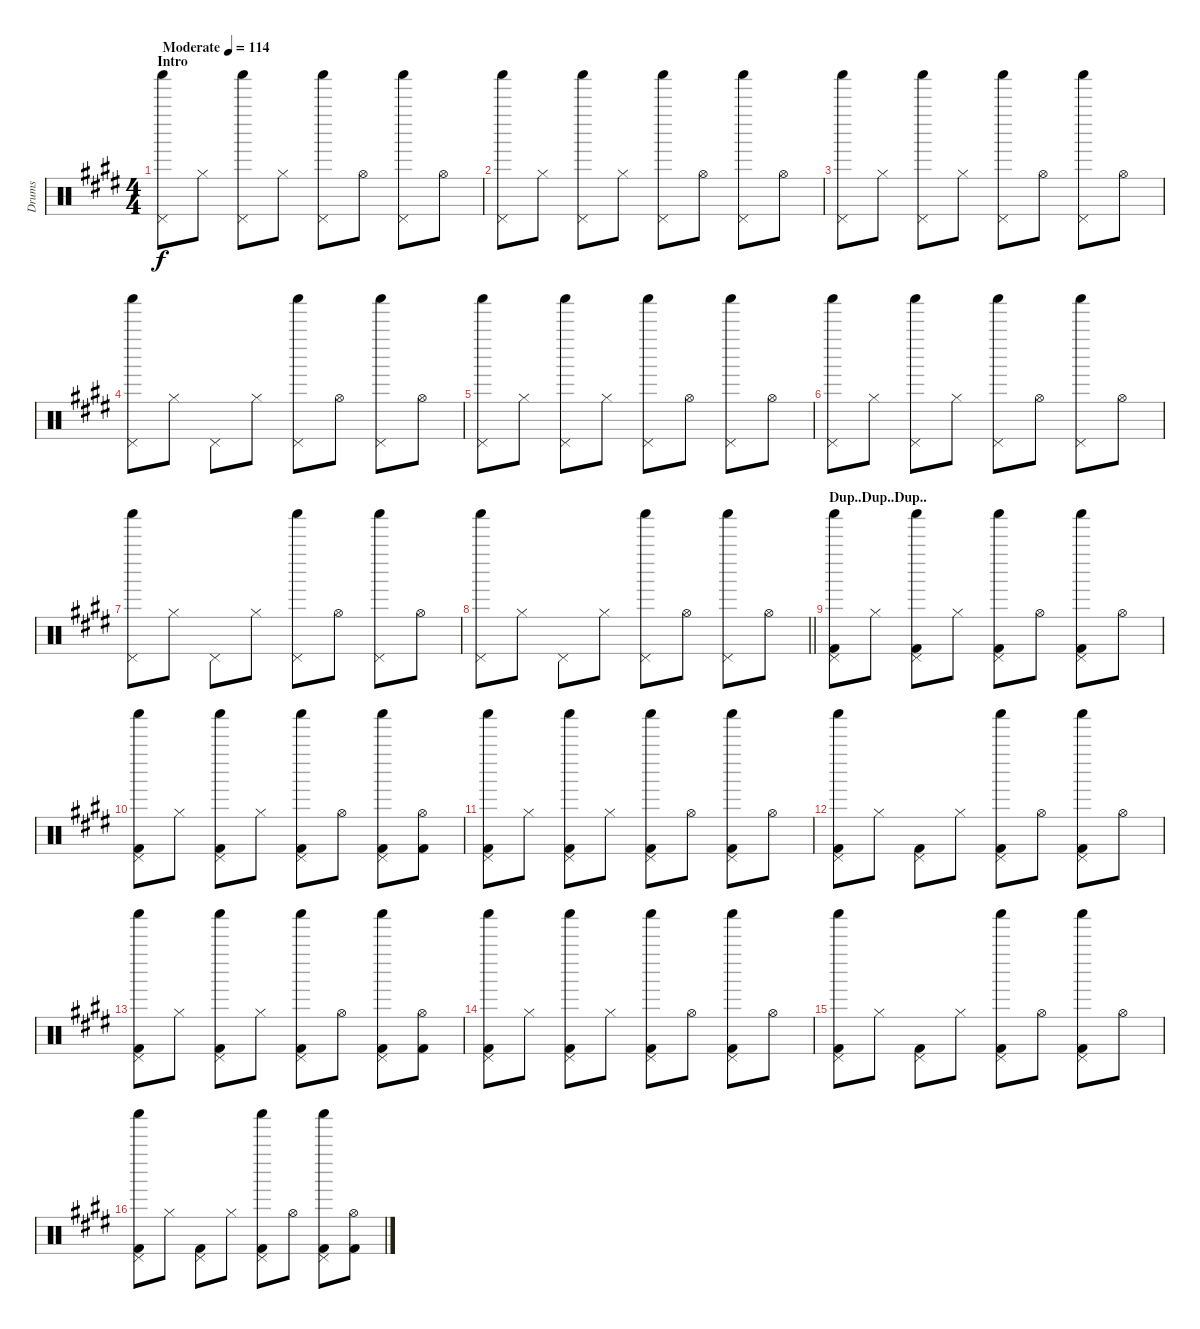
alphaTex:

\track ("Drums" "Drums") {instrument percussion}
\staff {score}
\articulation defaults
\ts (4 4)
\section ("" "Intro")
\tempo (114 "Moderate")
\clef neutral
\ks e
("Pedal Hi-Hat (hit)" "Shaker (hit)").8{dy f} "Hi-Hat (closed)".8 ("Pedal Hi-Hat (hit)" "Shaker (hit)").8 "Hi-Hat (closed)".8 ("Pedal Hi-Hat (hit)" "Shaker (hit)").8 "Hi-Hat (open)".8 ("Pedal Hi-Hat (hit)" "Shaker (hit)").8 "Hi-Hat (open)".8 |
("Pedal Hi-Hat (hit)" "Shaker (hit)").8 "Hi-Hat (closed)".8 ("Pedal Hi-Hat (hit)" "Shaker (hit)").8 "Hi-Hat (closed)".8 ("Pedal Hi-Hat (hit)" "Shaker (hit)").8 "Hi-Hat (open)".8 ("Pedal Hi-Hat (hit)" "Shaker (hit)").8 "Hi-Hat (open)".8 |
("Pedal Hi-Hat (hit)" "Shaker (hit)").8 "Hi-Hat (closed)".8 ("Pedal Hi-Hat (hit)" "Shaker (hit)").8 "Hi-Hat (closed)".8 ("Pedal Hi-Hat (hit)" "Shaker (hit)").8 "Hi-Hat (open)".8 ("Pedal Hi-Hat (hit)" "Shaker (hit)").8 "Hi-Hat (open)".8 |
("Pedal Hi-Hat (hit)" "Shaker (hit)").8 "Hi-Hat (closed)".8 "Pedal Hi-Hat (hit)".8 "Hi-Hat (closed)".8 ("Pedal Hi-Hat (hit)" "Shaker (hit)").8 "Hi-Hat (open)".8 ("Pedal Hi-Hat (hit)" "Shaker (hit)").8 "Hi-Hat (open)".8 |
("Pedal Hi-Hat (hit)" "Shaker (hit)").8 "Hi-Hat (closed)".8 ("Pedal Hi-Hat (hit)" "Shaker (hit)").8 "Hi-Hat (closed)".8 ("Pedal Hi-Hat (hit)" "Shaker (hit)").8 "Hi-Hat (open)".8 ("Pedal Hi-Hat (hit)" "Shaker (hit)").8 "Hi-Hat (open)".8 |
("Pedal Hi-Hat (hit)" "Shaker (hit)").8 "Hi-Hat (closed)".8 ("Pedal Hi-Hat (hit)" "Shaker (hit)").8 "Hi-Hat (closed)".8 ("Pedal Hi-Hat (hit)" "Shaker (hit)").8 "Hi-Hat (open)".8 ("Pedal Hi-Hat (hit)" "Shaker (hit)").8 "Hi-Hat (open)".8 |
("Pedal Hi-Hat (hit)" "Shaker (hit)").8 "Hi-Hat (closed)".8 "Pedal Hi-Hat (hit)".8 "Hi-Hat (closed)".8 ("Pedal Hi-Hat (hit)" "Shaker (hit)").8 "Hi-Hat (open)".8 ("Pedal Hi-Hat (hit)" "Shaker (hit)").8 "Hi-Hat (open)".8 |
\barLineRight lightlight
("Pedal Hi-Hat (hit)" "Shaker (hit)").8 "Hi-Hat (closed)".8 "Pedal Hi-Hat (hit)".8 "Hi-Hat (closed)".8 ("Pedal Hi-Hat (hit)" "Shaker (hit)").8 "Hi-Hat (open)".8 ("Pedal Hi-Hat (hit)" "Shaker (hit)").8 "Hi-Hat (open)".8 |
\section ("" "Dup..Dup..Dup..")
("Pedal Hi-Hat (hit)" "Shaker (hit)" "Kick (hit) 2").8 "Hi-Hat (closed)".8 ("Pedal Hi-Hat (hit)" "Shaker (hit)" "Kick (hit) 2").8 "Hi-Hat (closed)".8 ("Pedal Hi-Hat (hit)" "Shaker (hit)" "Kick (hit) 2").8 "Hi-Hat (open)".8 ("Pedal Hi-Hat (hit)" "Shaker (hit)" "Kick (hit) 2").8 "Hi-Hat (open)".8 |
("Pedal Hi-Hat (hit)" "Shaker (hit)" "Kick (hit) 2").8 "Hi-Hat (closed)".8 ("Pedal Hi-Hat (hit)" "Shaker (hit)" "Kick (hit) 2").8 "Hi-Hat (closed)".8 ("Pedal Hi-Hat (hit)" "Shaker (hit)" "Kick (hit) 2").8 "Hi-Hat (open)".8 ("Pedal Hi-Hat (hit)" "Shaker (hit)" "Kick (hit) 2").8 ("Hi-Hat (open)" "Kick (hit) 2").8 |
("Pedal Hi-Hat (hit)" "Shaker (hit)" "Kick (hit) 2").8 "Hi-Hat (closed)".8 ("Pedal Hi-Hat (hit)" "Shaker (hit)" "Kick (hit) 2").8 "Hi-Hat (closed)".8 ("Pedal Hi-Hat (hit)" "Shaker (hit)" "Kick (hit) 2").8 "Hi-Hat (open)".8 ("Pedal Hi-Hat (hit)" "Shaker (hit)" "Kick (hit) 2").8 "Hi-Hat (open)".8 |
("Pedal Hi-Hat (hit)" "Shaker (hit)" "Kick (hit) 2").8 "Hi-Hat (closed)".8 ("Pedal Hi-Hat (hit)" "Kick (hit) 2").8 "Hi-Hat (closed)".8 ("Pedal Hi-Hat (hit)" "Shaker (hit)" "Kick (hit) 2").8 "Hi-Hat (open)".8 ("Pedal Hi-Hat (hit)" "Shaker (hit)" "Kick (hit) 2").8 "Hi-Hat (open)".8 |
("Pedal Hi-Hat (hit)" "Shaker (hit)" "Kick (hit) 2").8 "Hi-Hat (closed)".8 ("Pedal Hi-Hat (hit)" "Shaker (hit)" "Kick (hit) 2").8 "Hi-Hat (closed)".8 ("Pedal Hi-Hat (hit)" "Shaker (hit)" "Kick (hit) 2").8 "Hi-Hat (open)".8 ("Pedal Hi-Hat (hit)" "Shaker (hit)" "Kick (hit) 2").8 ("Hi-Hat (open)" "Kick (hit) 2").8 |
("Pedal Hi-Hat (hit)" "Shaker (hit)" "Kick (hit) 2").8 "Hi-Hat (closed)".8 ("Pedal Hi-Hat (hit)" "Shaker (hit)" "Kick (hit) 2").8 "Hi-Hat (closed)".8 ("Pedal Hi-Hat (hit)" "Shaker (hit)" "Kick (hit) 2").8 "Hi-Hat (open)".8 ("Pedal Hi-Hat (hit)" "Shaker (hit)" "Kick (hit) 2").8 "Hi-Hat (open)".8 |
("Pedal Hi-Hat (hit)" "Shaker (hit)" "Kick (hit) 2").8 "Hi-Hat (closed)".8 ("Pedal Hi-Hat (hit)" "Kick (hit) 2").8 "Hi-Hat (closed)".8 ("Pedal Hi-Hat (hit)" "Shaker (hit)" "Kick (hit) 2").8 "Hi-Hat (open)".8 ("Pedal Hi-Hat (hit)" "Shaker (hit)" "Kick (hit) 2").8 "Hi-Hat (open)".8 |
("Pedal Hi-Hat (hit)" "Shaker (hit)" "Kick (hit) 2").8 "Hi-Hat (closed)".8 ("Pedal Hi-Hat (hit)" "Kick (hit) 2").8 "Hi-Hat (closed)".8 ("Pedal Hi-Hat (hit)" "Shaker (hit)" "Kick (hit) 2").8 "Hi-Hat (open)".8 ("Pedal Hi-Hat (hit)" "Shaker (hit)" "Kick (hit) 2").8 ("Hi-Hat (open)" "Kick (hit) 2").8
